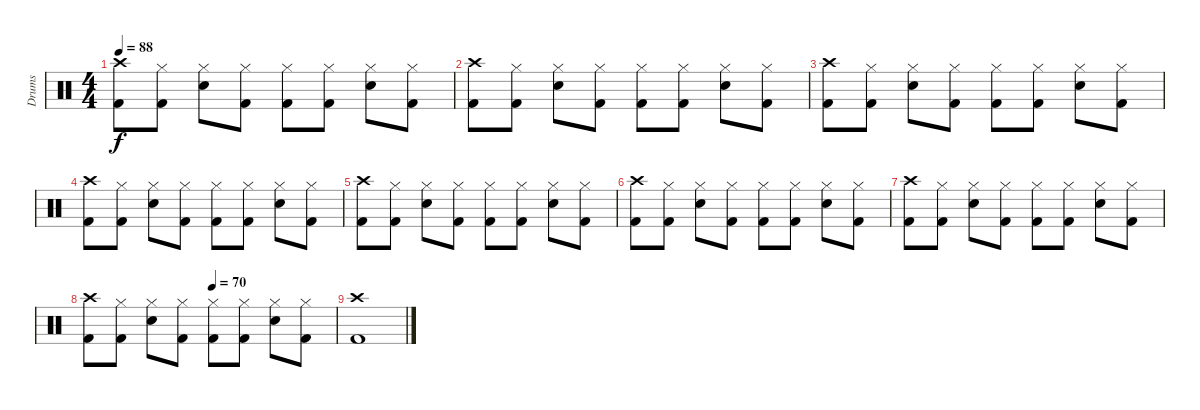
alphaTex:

\track ("Drums" "Drums") {instrument percussion}
\staff {score}
\articulation defaults
\ts (4 4)
\tempo 88
\clef neutral
\ks c
("Crash high (hit)" "Kick (hit) 2").8{dy f} ("Hi-Hat (closed)" "Kick (hit) 2").8 ("Hi-Hat (closed)" "Snare (hit) 2").8 ("Hi-Hat (closed)" "Kick (hit) 2").8 ("Hi-Hat (closed)" "Kick (hit) 2").8 ("Hi-Hat (closed)" "Kick (hit) 2").8 ("Hi-Hat (closed)" "Snare (hit) 2").8 ("Hi-Hat (closed)" "Kick (hit) 2").8 |
("Crash high (hit)" "Kick (hit) 2").8 ("Hi-Hat (closed)" "Kick (hit) 2").8 ("Hi-Hat (closed)" "Snare (hit) 2").8 ("Hi-Hat (closed)" "Kick (hit) 2").8 ("Hi-Hat (closed)" "Kick (hit) 2").8 ("Hi-Hat (closed)" "Kick (hit) 2").8 ("Hi-Hat (closed)" "Snare (hit) 2").8 ("Hi-Hat (closed)" "Kick (hit) 2").8 |
("Crash high (hit)" "Kick (hit) 2").8 ("Hi-Hat (closed)" "Kick (hit) 2").8 ("Hi-Hat (closed)" "Snare (hit) 2").8 ("Hi-Hat (closed)" "Kick (hit) 2").8 ("Hi-Hat (closed)" "Kick (hit) 2").8 ("Hi-Hat (closed)" "Kick (hit) 2").8 ("Hi-Hat (closed)" "Snare (hit) 2").8 ("Hi-Hat (closed)" "Kick (hit) 2").8 |
("Crash high (hit)" "Kick (hit) 2").8 ("Hi-Hat (closed)" "Kick (hit) 2").8 ("Hi-Hat (closed)" "Snare (hit) 2").8 ("Hi-Hat (closed)" "Kick (hit) 2").8 ("Hi-Hat (closed)" "Kick (hit) 2").8 ("Hi-Hat (closed)" "Kick (hit) 2").8 ("Hi-Hat (closed)" "Snare (hit) 2").8 ("Hi-Hat (closed)" "Kick (hit) 2").8 |
("Crash high (hit)" "Kick (hit) 2").8 ("Hi-Hat (closed)" "Kick (hit) 2").8 ("Hi-Hat (closed)" "Snare (hit) 2").8 ("Hi-Hat (closed)" "Kick (hit) 2").8 ("Hi-Hat (closed)" "Kick (hit) 2").8 ("Hi-Hat (closed)" "Kick (hit) 2").8 ("Hi-Hat (closed)" "Snare (hit) 2").8 ("Hi-Hat (closed)" "Kick (hit) 2").8 |
("Crash high (hit)" "Kick (hit) 2").8 ("Hi-Hat (closed)" "Kick (hit) 2").8 ("Hi-Hat (closed)" "Snare (hit) 2").8 ("Hi-Hat (closed)" "Kick (hit) 2").8 ("Hi-Hat (closed)" "Kick (hit) 2").8 ("Hi-Hat (closed)" "Kick (hit) 2").8 ("Hi-Hat (closed)" "Snare (hit) 2").8 ("Hi-Hat (closed)" "Kick (hit) 2").8 |
("Crash high (hit)" "Kick (hit) 2").8 ("Hi-Hat (closed)" "Kick (hit) 2").8 ("Hi-Hat (closed)" "Snare (hit) 2").8 ("Hi-Hat (closed)" "Kick (hit) 2").8 ("Hi-Hat (closed)" "Kick (hit) 2").8 ("Hi-Hat (closed)" "Kick (hit) 2").8 ("Hi-Hat (closed)" "Snare (hit) 2").8 ("Hi-Hat (closed)" "Kick (hit) 2").8 |
\tempo (70 0.5)
("Crash high (hit)" "Kick (hit) 2").8 ("Hi-Hat (closed)" "Kick (hit) 2").8 ("Hi-Hat (closed)" "Snare (hit) 2").8 ("Hi-Hat (closed)" "Kick (hit) 2").8 ("Hi-Hat (closed)" "Kick (hit) 2").8 ("Hi-Hat (closed)" "Kick (hit) 2").8 ("Hi-Hat (closed)" "Snare (hit) 2").8 ("Hi-Hat (closed)" "Kick (hit) 2").8 |
("Crash high (hit)" "Kick (hit) 2").1
